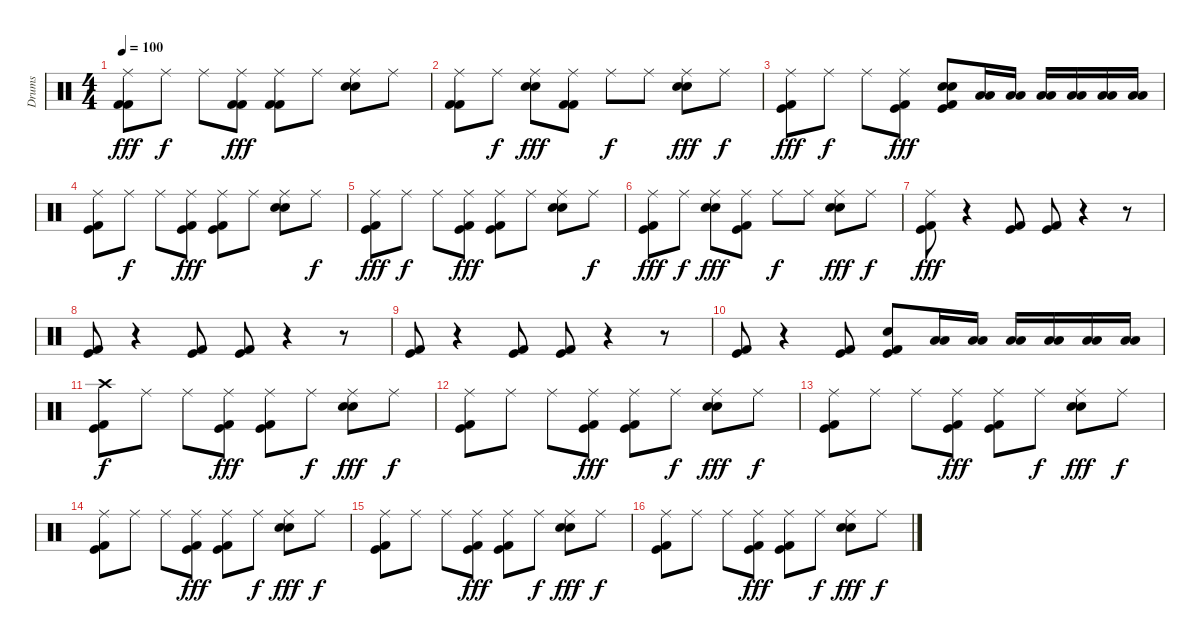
\track ("Drums" "Drums") {instrument percussion}
\staff {score}
\articulation defaults
\ts (4 4)
\tempo 100
\clef neutral
\ks c
("Ride (middle)" "Kick (hit) 2" "Kick (hit) 2").8{dy fff} "Ride (middle)".8{dy f} "Ride (middle)".8 ("Ride (middle)" "Kick (hit) 2" "Kick (hit) 2").8{dy fff} ("Ride (middle)" "Kick (hit) 2" "Kick (hit) 2").8 "Ride (middle)".8 ("Ride (middle)" "Electric Snare (hit)" "Electric Snare (hit)").8 "Ride (middle)".8 |
("Ride (middle)" "Kick (hit) 2" "Kick (hit) 2").8 "Ride (middle)".8{dy f} ("Ride (middle)" "Electric Snare (hit)" "Electric Snare (hit)").8{dy fff} ("Ride (middle)" "Kick (hit) 2" "Kick (hit) 2").8 "Ride (middle)".8{dy f} "Ride (middle)".8 ("Ride (middle)" "Electric Snare (hit)" "Electric Snare (hit)").8{dy fff} "Ride (middle)".8{dy f} |
("Ride (middle)" "Kick (hit) 2" "Kick (hit)").8{dy fff} "Ride (middle)".8{dy f} "Ride (middle)".8 ("Ride (middle)" "Kick (hit) 2" "Kick (hit)").8{dy fff} ("Electric Snare (hit)" "Snare (hit) 2" "Kick (hit) 2" "Kick (hit)").8 ("Low Tom (hit)" "Low Tom (hit)").16 ("Low Tom (hit)" "Low Tom (hit)").16 ("Low Tom (hit)" "Low Tom (hit)").16 ("Low Tom (hit)" "Low Tom (hit)").16 ("Low Tom (hit)" "Low Tom (hit)").16 ("Low Tom (hit)" "Low Tom (hit)").16 |
("Ride (middle)" "Kick (hit) 2" "Kick (hit)").8 "Ride (middle)".8{dy f} "Ride (middle)".8 ("Ride (middle)" "Kick (hit) 2" "Kick (hit)").8{dy fff} ("Ride (middle)" "Kick (hit) 2" "Kick (hit)").8 "Ride (middle)".8 ("Ride (middle)" "Electric Snare (hit)" "Snare (hit) 2").8 "Ride (middle)".8{dy f} |
("Ride (middle)" "Kick (hit) 2" "Kick (hit)").8{dy fff} "Ride (middle)".8{dy f} "Ride (middle)".8 ("Ride (middle)" "Kick (hit) 2" "Kick (hit)").8{dy fff} ("Ride (middle)" "Kick (hit) 2" "Kick (hit)").8 "Ride (middle)".8 ("Ride (middle)" "Electric Snare (hit)" "Snare (hit) 2").8 "Ride (middle)".8{dy f} |
("Ride (middle)" "Kick (hit) 2" "Kick (hit)").8{dy fff} "Ride (middle)".8{dy f} ("Ride (middle)" "Electric Snare (hit)" "Snare (hit) 2").8{dy fff} ("Ride (middle)" "Kick (hit) 2" "Kick (hit)").8 "Ride (middle)".8{dy f} "Ride (middle)".8 ("Ride (middle)" "Electric Snare (hit)" "Snare (hit) 2").8{dy fff} "Ride (middle)".8{dy f} |
("Ride (middle)" "Kick (hit) 2" "Kick (hit)").8{dy fff} r.4 ("Kick (hit) 2" "Kick (hit)").8 ("Kick (hit) 2" "Kick (hit)").8 r.4 r.8 |
("Kick (hit) 2" "Kick (hit)").8 r.4 ("Kick (hit) 2" "Kick (hit)").8 ("Kick (hit) 2" "Kick (hit)").8 r.4 r.8 |
("Kick (hit) 2" "Kick (hit)").8 r.4 ("Kick (hit) 2" "Kick (hit)").8 ("Kick (hit) 2" "Kick (hit)").8 r.4 r.8 |
("Kick (hit) 2" "Kick (hit)").8 r.4 ("Kick (hit) 2" "Kick (hit)").8 ("Kick (hit) 2" "Kick (hit)" "Snare (hit) 2").8 ("Low Tom (hit)" "Low Tom (hit)").16 ("Low Tom (hit)" "Low Tom (hit)").16 ("Low Tom (hit)" "Low Tom (hit)").16 ("Low Tom (hit)" "Low Tom (hit)").16 ("Low Tom (hit)" "Low Tom (hit)").16 ("Low Tom (hit)" "Low Tom (hit)").16 |
("Crash high (hit)" "Kick (hit) 2" "Kick (hit)").8{dy f} "Ride (middle)".8 "Ride (middle)".8 ("Ride (middle)" "Kick (hit) 2" "Kick (hit)").8{dy fff} ("Ride (middle)" "Kick (hit) 2" "Kick (hit)").8 "Ride (middle)".8{dy f} ("Ride (middle)" "Electric Snare (hit)" "Snare (hit) 2").8{dy fff} "Ride (middle)".8{dy f} |
("Ride (middle)" "Kick (hit) 2" "Kick (hit)").8 "Ride (middle)".8 "Ride (middle)".8 ("Ride (middle)" "Kick (hit) 2" "Kick (hit)").8{dy fff} ("Ride (middle)" "Kick (hit) 2" "Kick (hit)").8 "Ride (middle)".8{dy f} ("Ride (middle)" "Electric Snare (hit)" "Snare (hit) 2").8{dy fff} "Ride (middle)".8{dy f} |
("Ride (middle)" "Kick (hit) 2" "Kick (hit)").8 "Ride (middle)".8 "Ride (middle)".8 ("Ride (middle)" "Kick (hit) 2" "Kick (hit)").8{dy fff} ("Ride (middle)" "Kick (hit) 2" "Kick (hit)").8 "Ride (middle)".8{dy f} ("Ride (middle)" "Electric Snare (hit)" "Snare (hit) 2").8{dy fff} "Ride (middle)".8{dy f} |
("Ride (middle)" "Kick (hit) 2" "Kick (hit)").8 "Ride (middle)".8 "Ride (middle)".8 ("Ride (middle)" "Kick (hit) 2" "Kick (hit)").8{dy fff} ("Ride (middle)" "Kick (hit) 2" "Kick (hit)").8 "Ride (middle)".8{dy f} ("Ride (middle)" "Electric Snare (hit)" "Snare (hit) 2").8{dy fff} "Ride (middle)".8{dy f} |
("Ride (middle)" "Kick (hit) 2" "Kick (hit)").8 "Ride (middle)".8 "Ride (middle)".8 ("Ride (middle)" "Kick (hit) 2" "Kick (hit)").8{dy fff} ("Ride (middle)" "Kick (hit) 2" "Kick (hit)").8 "Ride (middle)".8{dy f} ("Ride (middle)" "Electric Snare (hit)" "Snare (hit) 2").8{dy fff} "Ride (middle)".8{dy f} |
("Ride (middle)" "Kick (hit) 2" "Kick (hit)").8 "Ride (middle)".8 "Ride (middle)".8 ("Ride (middle)" "Kick (hit) 2" "Kick (hit)").8{dy fff} ("Ride (middle)" "Kick (hit) 2" "Kick (hit)").8 "Ride (middle)".8{dy f} ("Ride (middle)" "Electric Snare (hit)" "Snare (hit) 2").8{dy fff} "Ride (middle)".8{dy f}
